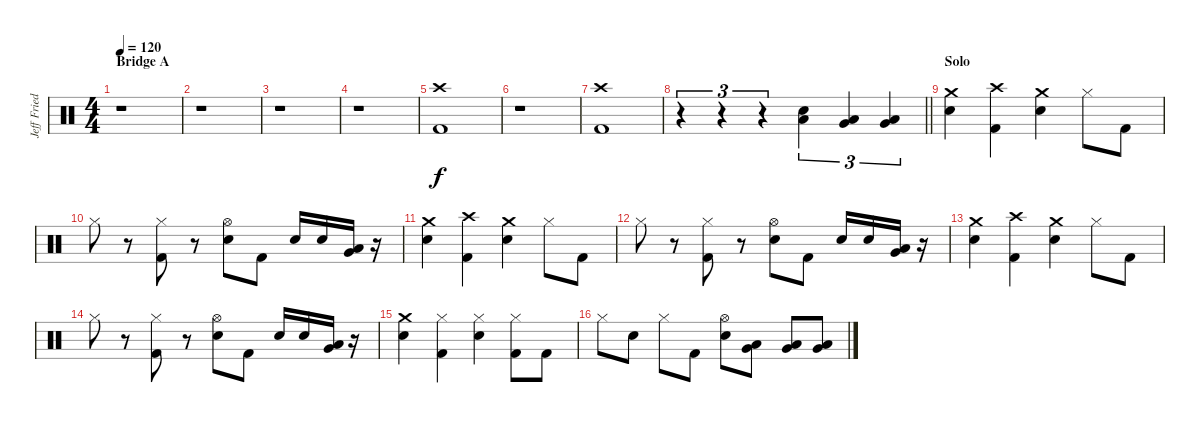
\track ("Jeff Friedl" "Jeff Fried") {instrument percussion}
\staff {score}
\articulation defaults
\ts (4 4)
\section ("" "Bridge A")
\tempo 120
\clef neutral
\ks c
r.1{dy f} |
r.1 |
r.1 |
r.1 |
("Crash high (hit)" "Kick (hit) 2").1 |
r.1 |
("Crash high (hit)" "Kick (hit) 2").1 |
\barLineRight lightlight
r.4{tu (3 2)} r.4{tu (3 2)} r.4{tu (3 2)} ("Low Tom (hit)" "Snare (hit) 2").4{tu (3 2)} ("Low Tom (hit)" "Very Low Tom (hit)").4{tu (3 2)} ("Very Low Tom (hit)" "Low Floor Tom (hit)").4{tu (3 2)} |
\section ("" "Solo")
("Crash medium (hit)" "Snare (hit) 2").4 ("Crash high (hit)" "Kick (hit) 2").4 ("Crash medium (hit)" "Snare (hit) 2").4 "Hi-Hat (closed)".8 "Kick (hit) 2".8 |
"Hi-Hat (closed)".8 r.8 ("Hi-Hat (closed)" "Kick (hit) 2").8 r.8 ("Hi-Hat (open)" "Snare (hit) 2").8 "Kick (hit) 2".8 "Snare (hit) 2".16 "Snare (hit) 2".16 ("Low Tom (hit)" "Very Low Tom (hit)").16 r.16 |
("Crash medium (hit)" "Snare (hit) 2").4 ("Crash high (hit)" "Kick (hit) 2").4 ("Crash medium (hit)" "Snare (hit) 2").4 "Hi-Hat (closed)".8 "Kick (hit) 2".8 |
"Hi-Hat (closed)".8 r.8 ("Hi-Hat (closed)" "Kick (hit) 2").8 r.8 ("Hi-Hat (open)" "Snare (hit) 2").8 "Kick (hit) 2".8 "Snare (hit) 2".16 "Snare (hit) 2".16 ("Low Tom (hit)" "Very Low Tom (hit)").16 r.16 |
("Crash medium (hit)" "Snare (hit) 2").4 ("Crash high (hit)" "Kick (hit) 2").4 ("Crash medium (hit)" "Snare (hit) 2").4 "Hi-Hat (closed)".8 "Kick (hit) 2".8 |
"Hi-Hat (closed)".8 r.8 ("Hi-Hat (closed)" "Kick (hit) 2").8 r.8 ("Hi-Hat (open)" "Snare (hit) 2").8 "Kick (hit) 2".8 "Snare (hit) 2".16 "Snare (hit) 2".16 ("Low Tom (hit)" "Very Low Tom (hit)").16 r.16 |
("Crash medium (hit)" "Snare (hit) 2").4 ("Hi-Hat (closed)" "Kick (hit) 2").4 ("Hi-Hat (closed)" "Snare (hit) 2").4 ("Hi-Hat (closed)" "Kick (hit) 2").8 "Kick (hit) 2".8 |
"Hi-Hat (closed)".8 "Snare (hit) 2".8 "Hi-Hat (closed)".8 "Kick (hit) 2".8 ("Hi-Hat (open)" "Snare (hit) 2").8 ("Low Tom (hit)" "Very Low Tom (hit)").8 ("Very Low Tom (hit)" "Low Floor Tom (hit)").8 ("Very Low Tom (hit)" "Low Floor Tom (hit)").8
